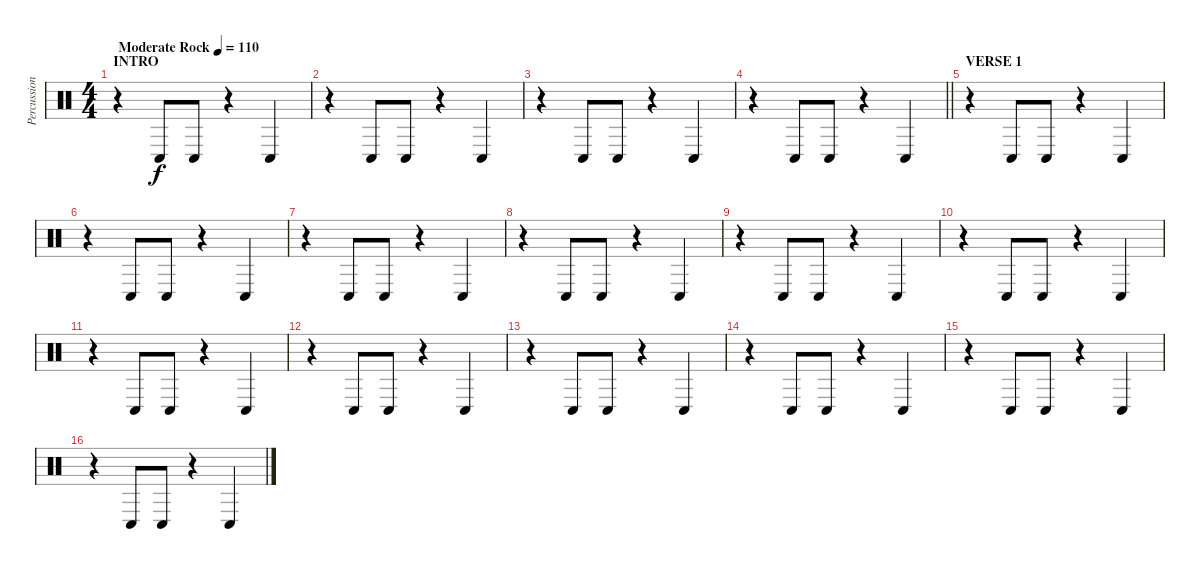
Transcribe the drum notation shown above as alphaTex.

\track ("Percussion" "Percussion") {instrument percussion}
\staff {score}
\articulation defaults
\ts (4 4)
\section ("" "INTRO")
\tempo (110 "Moderate Rock")
\clef neutral
\ks c
r.4{dy f volume 16} "Conga low (hit)".8 "Conga low (hit)".8 r.4 "Conga low (hit)".4 |
r.4 "Conga low (hit)".8 "Conga low (hit)".8 r.4 "Conga low (hit)".4 |
r.4 "Conga low (hit)".8 "Conga low (hit)".8 r.4 "Conga low (hit)".4 |
\barLineRight lightlight
r.4 "Conga low (hit)".8 "Conga low (hit)".8 r.4 "Conga low (hit)".4 |
\section ("" "VERSE 1")
r.4 "Conga low (hit)".8 "Conga low (hit)".8 r.4 "Conga low (hit)".4 |
r.4 "Conga low (hit)".8 "Conga low (hit)".8 r.4 "Conga low (hit)".4 |
r.4 "Conga low (hit)".8 "Conga low (hit)".8 r.4 "Conga low (hit)".4 |
r.4 "Conga low (hit)".8 "Conga low (hit)".8 r.4 "Conga low (hit)".4 |
r.4 "Conga low (hit)".8 "Conga low (hit)".8 r.4 "Conga low (hit)".4 |
r.4 "Conga low (hit)".8 "Conga low (hit)".8 r.4 "Conga low (hit)".4 |
r.4 "Conga low (hit)".8 "Conga low (hit)".8 r.4 "Conga low (hit)".4 |
r.4 "Conga low (hit)".8 "Conga low (hit)".8 r.4 "Conga low (hit)".4 |
r.4 "Conga low (hit)".8 "Conga low (hit)".8 r.4 "Conga low (hit)".4 |
r.4 "Conga low (hit)".8 "Conga low (hit)".8 r.4 "Conga low (hit)".4 |
r.4 "Conga low (hit)".8 "Conga low (hit)".8 r.4 "Conga low (hit)".4 |
r.4 "Conga low (hit)".8 "Conga low (hit)".8 r.4 "Conga low (hit)".4
